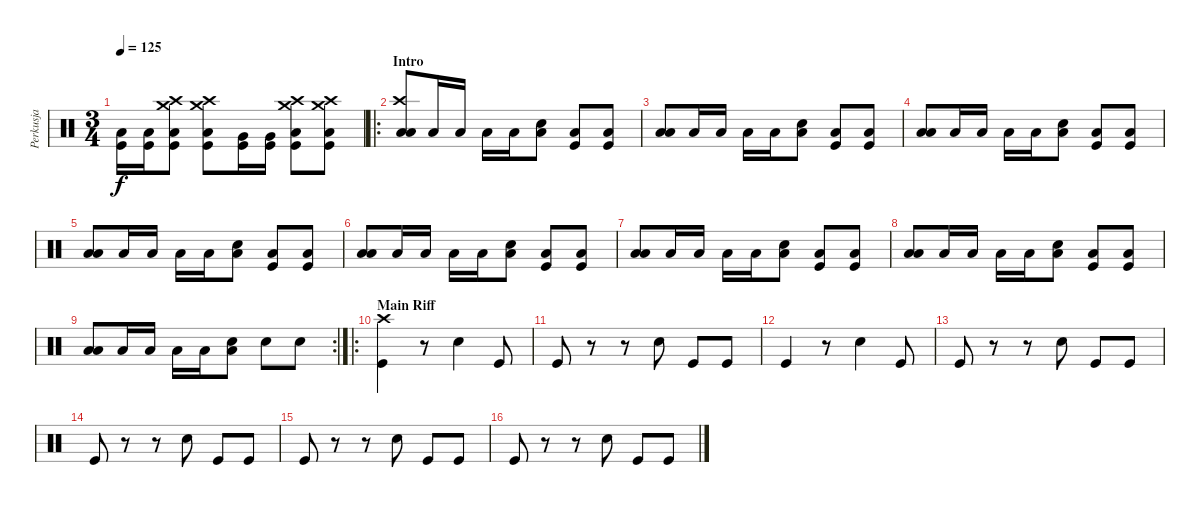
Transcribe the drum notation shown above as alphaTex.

\track ("Perkusja" "Perkusja") {instrument percussion}
\staff {score}
\articulation defaults
\ts (3 4)
\tempo 125
\clef neutral
\ks c
("Low Floor Tom (hit)" "Kick (hit)").16{dy f} ("Low Floor Tom (hit)" "Kick (hit)").16 ("Crash medium (hit)" "Crash high (hit)" "Low Floor Tom (hit)" "Kick (hit)").8 ("Crash medium (hit)" "Crash high (hit)" "Low Floor Tom (hit)" "Kick (hit)").8 ("Very Low Tom (hit)" "Kick (hit)").16 ("Very Low Tom (hit)" "Kick (hit)").16 ("Crash medium (hit)" "Crash high (hit)" "Low Floor Tom (hit)" "Kick (hit)").8 ("Crash medium (hit)" "Crash high (hit)" "Low Floor Tom (hit)" "Kick (hit)").8 |
\ro
\section ("" "Intro")
("Crash high (hit)" "Low Tom (hit)" "Low Floor Tom (hit)").8 "Low Floor Tom (hit)".16 "Low Floor Tom (hit)".16 "Low Floor Tom (hit)".16 "Low Floor Tom (hit)".16 ("Electric Snare (hit)" "Low Floor Tom (hit)").8 ("Low Floor Tom (hit)" "Kick (hit)").8 ("Low Floor Tom (hit)" "Kick (hit)").8 |
("Low Tom (hit)" "Low Floor Tom (hit)").8 "Low Floor Tom (hit)".16 "Low Floor Tom (hit)".16 "Low Floor Tom (hit)".16 "Low Floor Tom (hit)".16 ("Snare (hit) 2" "Low Floor Tom (hit)").8 ("Low Floor Tom (hit)" "Kick (hit)").8 ("Low Floor Tom (hit)" "Kick (hit)").8 |
("Low Tom (hit)" "Low Floor Tom (hit)").8 "Low Floor Tom (hit)".16 "Low Floor Tom (hit)".16 "Low Floor Tom (hit)".16 "Low Floor Tom (hit)".16 ("Snare (hit) 2" "Low Floor Tom (hit)").8 ("Low Floor Tom (hit)" "Kick (hit)").8 ("Low Floor Tom (hit)" "Kick (hit)").8 |
("Low Tom (hit)" "Low Floor Tom (hit)").8 "Low Floor Tom (hit)".16 "Low Floor Tom (hit)".16 "Low Floor Tom (hit)".16 "Low Floor Tom (hit)".16 ("Snare (hit) 2" "Low Floor Tom (hit)").8 ("Low Floor Tom (hit)" "Kick (hit)").8 ("Low Floor Tom (hit)" "Kick (hit)").8 |
("Low Tom (hit)" "Low Floor Tom (hit)").8 "Low Floor Tom (hit)".16 "Low Floor Tom (hit)".16 "Low Floor Tom (hit)".16 "Low Floor Tom (hit)".16 ("Snare (hit) 2" "Low Floor Tom (hit)").8 ("Low Floor Tom (hit)" "Kick (hit)").8 ("Low Floor Tom (hit)" "Kick (hit)").8 |
("Low Tom (hit)" "Low Floor Tom (hit)").8 "Low Floor Tom (hit)".16 "Low Floor Tom (hit)".16 "Low Floor Tom (hit)".16 "Low Floor Tom (hit)".16 ("Snare (hit) 2" "Low Floor Tom (hit)").8 ("Low Floor Tom (hit)" "Kick (hit)").8 ("Low Floor Tom (hit)" "Kick (hit)").8 |
("Low Tom (hit)" "Low Floor Tom (hit)").8 "Low Floor Tom (hit)".16 "Low Floor Tom (hit)".16 "Low Floor Tom (hit)".16 "Low Floor Tom (hit)".16 ("Snare (hit) 2" "Low Floor Tom (hit)").8 ("Low Floor Tom (hit)" "Kick (hit)").8 ("Low Floor Tom (hit)" "Kick (hit)").8 |
\rc 2
("Low Tom (hit)" "Low Floor Tom (hit)").8 "Low Floor Tom (hit)".16 "Low Floor Tom (hit)".16 "Low Floor Tom (hit)".16 "Low Floor Tom (hit)".16 ("Snare (hit) 2" "Low Floor Tom (hit)").8 "Electric Snare (hit)".8 "Electric Snare (hit)".8 |
\ro
\section ("" "Main Riff")
("Crash high (hit)" "Kick (hit)").4 r.8 "Electric Snare (hit)".4 "Kick (hit)".8 |
"Kick (hit)".8 r.8 r.8 "Electric Snare (hit)".8 "Kick (hit)".8 "Kick (hit)".8 |
"Kick (hit)".4 r.8 "Electric Snare (hit)".4 "Kick (hit)".8 |
"Kick (hit)".8 r.8 r.8 "Electric Snare (hit)".8 "Kick (hit)".8 "Kick (hit)".8 |
"Kick (hit)".8 r.8 r.8 "Electric Snare (hit)".8 "Kick (hit)".8 "Kick (hit)".8 |
"Kick (hit)".8 r.8 r.8 "Electric Snare (hit)".8 "Kick (hit)".8 "Kick (hit)".8 |
"Kick (hit)".8 r.8 r.8 "Electric Snare (hit)".8 "Kick (hit)".8 "Kick (hit)".8
